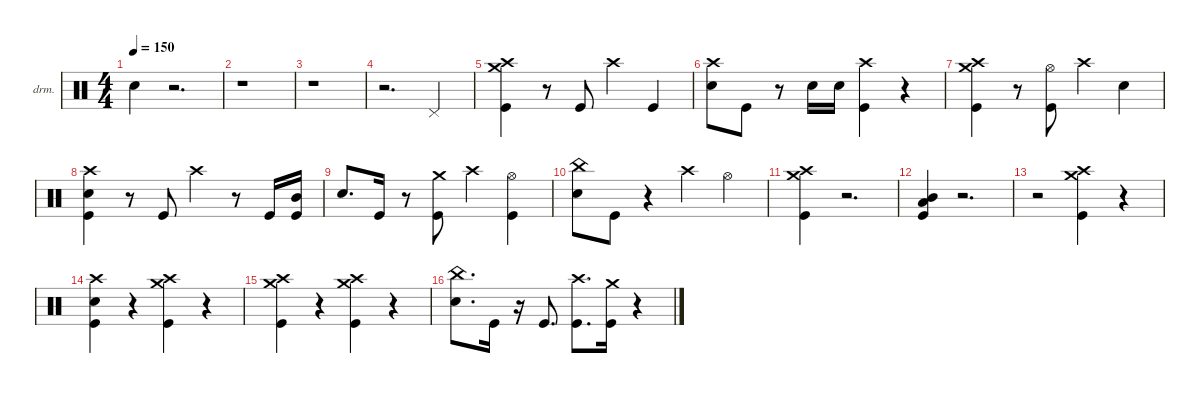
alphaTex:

\defaultSystemsLayout 4
\hideDynamics
\bracketExtendMode nobrackets
\firstSystemTrackNameOrientation horizontal
\track ("Drumkit" "drm.") {instrument percussion}
\staff {score}
\articulation defaults
\ts (4 4)
\tempo 150
\clef neutral
\ks c "Snare (hit) 2".4{dy fff}
r.2{d} |
r.1 |
r.1 |
r.2{d} "Pedal Hi-Hat (hit)"{acc #}.4{dy p} |
("Kick (hit)" "Crash high (hit)"{acc #} "Crash medium (hit)").4{dy fff} r.8 "Kick (hit)".8 "Crash high (hit)"{acc #}.4{dy ff} "Kick (hit)".4{dy fff} |
("Snare (hit) 2" "Crash high (hit)"{acc #}).8 "Kick (hit)".8 r.8 "Snare (hit) 2".16{dy ppp} "Snare (hit) 2".16{dy pp} ("Kick (hit)" "Crash high (hit)"{acc #}).4{dy fff} r.4 |
("Kick (hit)" "Crash high (hit)"{acc #} "Crash medium (hit)").4 r.8 ("Kick (hit)" "Hi-Hat (open)"{acc #}).8 "Crash high (hit)"{acc #}.4{dy ff} "Snare (hit) 2".4{dy pp} |
("Kick (hit)" "Snare (hit) 2" "Crash high (hit)"{acc #}).4{dy fff} r.8 "Kick (hit)".8 "Crash high (hit)"{acc #}.4{dy ff} r.8 "Kick (hit)".16{dy fff} ("Kick (hit)" "Mid Tom (hit)").16 |
"Snare (hit) 2".8{d dy ff} "Kick (hit)".16{dy fff} r.8 ("Kick (hit)" "Crash medium (hit)").8 "Crash high (hit)"{acc #}.4{dy ff} ("Kick (hit)" "Hi-Hat (open)"{acc #}).4 |
("Snare (hit) 2" "China (hit)").8 "Kick (hit)".8{dy fff} r.4 "Crash high (hit)"{acc #}.4{dy ff} "Hi-Hat (open)"{acc #}.4 |
("Kick (hit)" "Crash high (hit)"{acc #} "Crash medium (hit)").4{dy fff} r.2{d} |
("Low Tom (hit)" "Kick (hit)" "Mid Tom (hit)").4{dy ff} r.2{d} |
r.2 ("Kick (hit)" "Crash high (hit)"{acc #} "Crash medium (hit)").4{dy fff} r.4 |
("Kick (hit)" "Snare (hit) 2" "Crash high (hit)"{acc #}).4 r.4 ("Kick (hit)" "Crash high (hit)"{acc #} "Crash medium (hit)").4 r.4 |
("Kick (hit)" "Crash high (hit)"{acc #} "Crash medium (hit)").4{dy ff} r.4 ("Kick (hit)" "Crash high (hit)"{acc #} "Crash medium (hit)").4 r.4 |
("Snare (hit) 2" "China (hit)").8{d dy fff} "Kick (hit)".16 r.16 "Kick (hit)".8{d} ("Kick (hit)" "Crash high (hit)"{acc #}).8{d} ("Kick (hit)" "Crash medium (hit)").16 r.4
